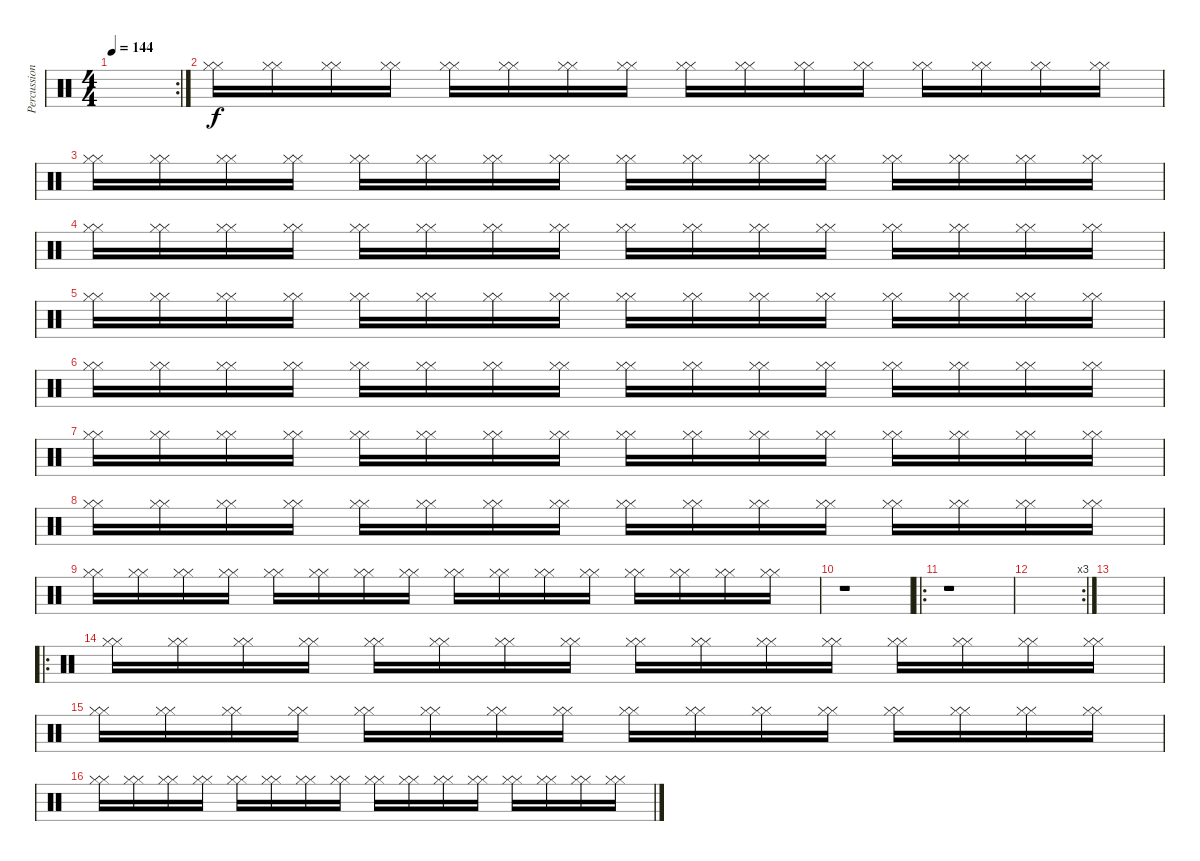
\track ("Percussion 3" "Percussion") {instrument percussion}
\staff {score}
\articulation defaults
\rc 2
\ts (4 4)
\tempo 144
\clef neutral
\ks c
|
("Hi-Hat (closed)" "Hi-Hat (closed)").16 ("Hi-Hat (closed)" "Hi-Hat (closed)").16 ("Hi-Hat (closed)" "Hi-Hat (closed)").16 ("Hi-Hat (closed)" "Hi-Hat (closed)").16 ("Hi-Hat (closed)" "Hi-Hat (closed)").16 ("Hi-Hat (closed)" "Hi-Hat (closed)").16 ("Hi-Hat (closed)" "Hi-Hat (closed)").16 ("Hi-Hat (closed)" "Hi-Hat (closed)").16 ("Hi-Hat (closed)" "Hi-Hat (closed)").16 ("Hi-Hat (closed)" "Hi-Hat (closed)").16 ("Hi-Hat (closed)" "Hi-Hat (closed)").16 ("Hi-Hat (closed)" "Hi-Hat (closed)").16 ("Hi-Hat (closed)" "Hi-Hat (closed)").16 ("Hi-Hat (closed)" "Hi-Hat (closed)").16 ("Hi-Hat (closed)" "Hi-Hat (closed)").16 ("Hi-Hat (closed)" "Hi-Hat (closed)").16 |
("Hi-Hat (closed)" "Hi-Hat (closed)").16 ("Hi-Hat (closed)" "Hi-Hat (closed)").16 ("Hi-Hat (closed)" "Hi-Hat (closed)").16 ("Hi-Hat (closed)" "Hi-Hat (closed)").16 ("Hi-Hat (closed)" "Hi-Hat (closed)").16 ("Hi-Hat (closed)" "Hi-Hat (closed)").16 ("Hi-Hat (closed)" "Hi-Hat (closed)").16 ("Hi-Hat (closed)" "Hi-Hat (closed)").16 ("Hi-Hat (closed)" "Hi-Hat (closed)").16 ("Hi-Hat (closed)" "Hi-Hat (closed)").16 ("Hi-Hat (closed)" "Hi-Hat (closed)").16 ("Hi-Hat (closed)" "Hi-Hat (closed)").16 ("Hi-Hat (closed)" "Hi-Hat (closed)").16 ("Hi-Hat (closed)" "Hi-Hat (closed)").16 ("Hi-Hat (closed)" "Hi-Hat (closed)").16 ("Hi-Hat (closed)" "Hi-Hat (closed)").16 |
("Hi-Hat (closed)" "Hi-Hat (closed)").16 ("Hi-Hat (closed)" "Hi-Hat (closed)").16 ("Hi-Hat (closed)" "Hi-Hat (closed)").16 ("Hi-Hat (closed)" "Hi-Hat (closed)").16 ("Hi-Hat (closed)" "Hi-Hat (closed)").16 ("Hi-Hat (closed)" "Hi-Hat (closed)").16 ("Hi-Hat (closed)" "Hi-Hat (closed)").16 ("Hi-Hat (closed)" "Hi-Hat (closed)").16 ("Hi-Hat (closed)" "Hi-Hat (closed)").16 ("Hi-Hat (closed)" "Hi-Hat (closed)").16 ("Hi-Hat (closed)" "Hi-Hat (closed)").16 ("Hi-Hat (closed)" "Hi-Hat (closed)").16 ("Hi-Hat (closed)" "Hi-Hat (closed)").16 ("Hi-Hat (closed)" "Hi-Hat (closed)").16 ("Hi-Hat (closed)" "Hi-Hat (closed)").16 ("Hi-Hat (closed)" "Hi-Hat (closed)").16 |
("Hi-Hat (closed)" "Hi-Hat (closed)").16 ("Hi-Hat (closed)" "Hi-Hat (closed)").16 ("Hi-Hat (closed)" "Hi-Hat (closed)").16 ("Hi-Hat (closed)" "Hi-Hat (closed)").16 ("Hi-Hat (closed)" "Hi-Hat (closed)").16 ("Hi-Hat (closed)" "Hi-Hat (closed)").16 ("Hi-Hat (closed)" "Hi-Hat (closed)").16 ("Hi-Hat (closed)" "Hi-Hat (closed)").16 ("Hi-Hat (closed)" "Hi-Hat (closed)").16 ("Hi-Hat (closed)" "Hi-Hat (closed)").16 ("Hi-Hat (closed)" "Hi-Hat (closed)").16 ("Hi-Hat (closed)" "Hi-Hat (closed)").16 ("Hi-Hat (closed)" "Hi-Hat (closed)").16 ("Hi-Hat (closed)" "Hi-Hat (closed)").16 ("Hi-Hat (closed)" "Hi-Hat (closed)").16 ("Hi-Hat (closed)" "Hi-Hat (closed)").16 |
("Hi-Hat (closed)" "Hi-Hat (closed)").16 ("Hi-Hat (closed)" "Hi-Hat (closed)").16 ("Hi-Hat (closed)" "Hi-Hat (closed)").16 ("Hi-Hat (closed)" "Hi-Hat (closed)").16 ("Hi-Hat (closed)" "Hi-Hat (closed)").16 ("Hi-Hat (closed)" "Hi-Hat (closed)").16 ("Hi-Hat (closed)" "Hi-Hat (closed)").16 ("Hi-Hat (closed)" "Hi-Hat (closed)").16 ("Hi-Hat (closed)" "Hi-Hat (closed)").16 ("Hi-Hat (closed)" "Hi-Hat (closed)").16 ("Hi-Hat (closed)" "Hi-Hat (closed)").16 ("Hi-Hat (closed)" "Hi-Hat (closed)").16 ("Hi-Hat (closed)" "Hi-Hat (closed)").16 ("Hi-Hat (closed)" "Hi-Hat (closed)").16 ("Hi-Hat (closed)" "Hi-Hat (closed)").16 ("Hi-Hat (closed)" "Hi-Hat (closed)").16 |
("Hi-Hat (closed)" "Hi-Hat (closed)").16 ("Hi-Hat (closed)" "Hi-Hat (closed)").16 ("Hi-Hat (closed)" "Hi-Hat (closed)").16 ("Hi-Hat (closed)" "Hi-Hat (closed)").16 ("Hi-Hat (closed)" "Hi-Hat (closed)").16 ("Hi-Hat (closed)" "Hi-Hat (closed)").16 ("Hi-Hat (closed)" "Hi-Hat (closed)").16 ("Hi-Hat (closed)" "Hi-Hat (closed)").16 ("Hi-Hat (closed)" "Hi-Hat (closed)").16 ("Hi-Hat (closed)" "Hi-Hat (closed)").16 ("Hi-Hat (closed)" "Hi-Hat (closed)").16 ("Hi-Hat (closed)" "Hi-Hat (closed)").16 ("Hi-Hat (closed)" "Hi-Hat (closed)").16 ("Hi-Hat (closed)" "Hi-Hat (closed)").16 ("Hi-Hat (closed)" "Hi-Hat (closed)").16 ("Hi-Hat (closed)" "Hi-Hat (closed)").16 |
("Hi-Hat (closed)" "Hi-Hat (closed)").16 ("Hi-Hat (closed)" "Hi-Hat (closed)").16 ("Hi-Hat (closed)" "Hi-Hat (closed)").16 ("Hi-Hat (closed)" "Hi-Hat (closed)").16 ("Hi-Hat (closed)" "Hi-Hat (closed)").16 ("Hi-Hat (closed)" "Hi-Hat (closed)").16 ("Hi-Hat (closed)" "Hi-Hat (closed)").16 ("Hi-Hat (closed)" "Hi-Hat (closed)").16 ("Hi-Hat (closed)" "Hi-Hat (closed)").16 ("Hi-Hat (closed)" "Hi-Hat (closed)").16 ("Hi-Hat (closed)" "Hi-Hat (closed)").16 ("Hi-Hat (closed)" "Hi-Hat (closed)").16 ("Hi-Hat (closed)" "Hi-Hat (closed)").16 ("Hi-Hat (closed)" "Hi-Hat (closed)").16 ("Hi-Hat (closed)" "Hi-Hat (closed)").16 ("Hi-Hat (closed)" "Hi-Hat (closed)").16 |
("Hi-Hat (closed)" "Hi-Hat (closed)").16 ("Hi-Hat (closed)" "Hi-Hat (closed)").16 ("Hi-Hat (closed)" "Hi-Hat (closed)").16 ("Hi-Hat (closed)" "Hi-Hat (closed)").16 ("Hi-Hat (closed)" "Hi-Hat (closed)").16 ("Hi-Hat (closed)" "Hi-Hat (closed)").16 ("Hi-Hat (closed)" "Hi-Hat (closed)").16 ("Hi-Hat (closed)" "Hi-Hat (closed)").16 ("Hi-Hat (closed)" "Hi-Hat (closed)").16 ("Hi-Hat (closed)" "Hi-Hat (closed)").16 ("Hi-Hat (closed)" "Hi-Hat (closed)").16 ("Hi-Hat (closed)" "Hi-Hat (closed)").16 ("Hi-Hat (closed)" "Hi-Hat (closed)").16 ("Hi-Hat (closed)" "Hi-Hat (closed)").16 ("Hi-Hat (closed)" "Hi-Hat (closed)").16 ("Hi-Hat (closed)" "Hi-Hat (closed)").16 |
r.1 |
\ro
r.1 |
\rc 3
|
|
\ro
("Hi-Hat (closed)" "Hi-Hat (closed)").16 ("Hi-Hat (closed)" "Hi-Hat (closed)").16 ("Hi-Hat (closed)" "Hi-Hat (closed)").16 ("Hi-Hat (closed)" "Hi-Hat (closed)").16 ("Hi-Hat (closed)" "Hi-Hat (closed)").16 ("Hi-Hat (closed)" "Hi-Hat (closed)").16 ("Hi-Hat (closed)" "Hi-Hat (closed)").16 ("Hi-Hat (closed)" "Hi-Hat (closed)").16 ("Hi-Hat (closed)" "Hi-Hat (closed)").16 ("Hi-Hat (closed)" "Hi-Hat (closed)").16 ("Hi-Hat (closed)" "Hi-Hat (closed)").16 ("Hi-Hat (closed)" "Hi-Hat (closed)").16 ("Hi-Hat (closed)" "Hi-Hat (closed)").16 ("Hi-Hat (closed)" "Hi-Hat (closed)").16 ("Hi-Hat (closed)" "Hi-Hat (closed)").16 ("Hi-Hat (closed)" "Hi-Hat (closed)").16 |
("Hi-Hat (closed)" "Hi-Hat (closed)").16 ("Hi-Hat (closed)" "Hi-Hat (closed)").16 ("Hi-Hat (closed)" "Hi-Hat (closed)").16 ("Hi-Hat (closed)" "Hi-Hat (closed)").16 ("Hi-Hat (closed)" "Hi-Hat (closed)").16 ("Hi-Hat (closed)" "Hi-Hat (closed)").16 ("Hi-Hat (closed)" "Hi-Hat (closed)").16 ("Hi-Hat (closed)" "Hi-Hat (closed)").16 ("Hi-Hat (closed)" "Hi-Hat (closed)").16 ("Hi-Hat (closed)" "Hi-Hat (closed)").16 ("Hi-Hat (closed)" "Hi-Hat (closed)").16 ("Hi-Hat (closed)" "Hi-Hat (closed)").16 ("Hi-Hat (closed)" "Hi-Hat (closed)").16 ("Hi-Hat (closed)" "Hi-Hat (closed)").16 ("Hi-Hat (closed)" "Hi-Hat (closed)").16 ("Hi-Hat (closed)" "Hi-Hat (closed)").16 |
("Hi-Hat (closed)" "Hi-Hat (closed)").16 ("Hi-Hat (closed)" "Hi-Hat (closed)").16 ("Hi-Hat (closed)" "Hi-Hat (closed)").16 ("Hi-Hat (closed)" "Hi-Hat (closed)").16 ("Hi-Hat (closed)" "Hi-Hat (closed)").16 ("Hi-Hat (closed)" "Hi-Hat (closed)").16 ("Hi-Hat (closed)" "Hi-Hat (closed)").16 ("Hi-Hat (closed)" "Hi-Hat (closed)").16 ("Hi-Hat (closed)" "Hi-Hat (closed)").16 ("Hi-Hat (closed)" "Hi-Hat (closed)").16 ("Hi-Hat (closed)" "Hi-Hat (closed)").16 ("Hi-Hat (closed)" "Hi-Hat (closed)").16 ("Hi-Hat (closed)" "Hi-Hat (closed)").16 ("Hi-Hat (closed)" "Hi-Hat (closed)").16 ("Hi-Hat (closed)" "Hi-Hat (closed)").16 ("Hi-Hat (closed)" "Hi-Hat (closed)").16
